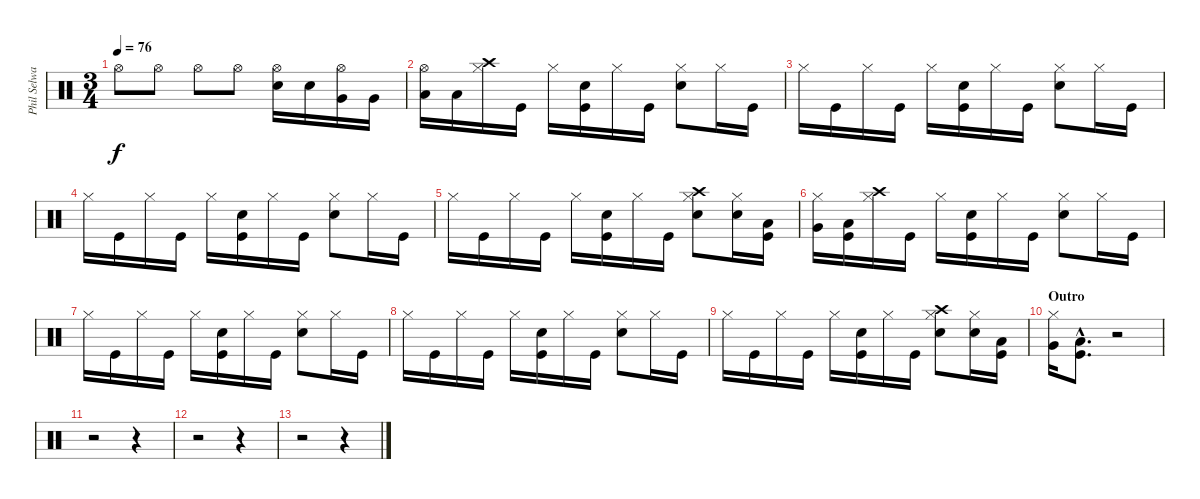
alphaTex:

\track ("Phil Selway" "Phil Selwa") {instrument percussion}
\staff {score}
\articulation defaults
\ts (3 4)
\tempo 76
\clef neutral
\ks c "Hi-Hat (open)".8{dy f} "Hi-Hat (open)".8 "Hi-Hat (open)".8 "Hi-Hat (open)".8
("Snare (hit) 2" "Hi-Hat (open)").16 "Snare (hit) 2".16 ("Very Low Tom (hit)" "Hi-Hat (open)").16 "Very Low Tom (hit)".16 |
("Low Floor Tom (hit)" "Hi-Hat (open)").16 "Low Floor Tom (hit)".16 ("Hi-Hat (closed)" "Crash high (hit)").16 "Kick (hit)".16 "Hi-Hat (closed)".16 ("Kick (hit)" "Snare (hit) 2").16 "Hi-Hat (closed)".16 "Kick (hit)".16 ("Snare (hit) 2" "Hi-Hat (closed)").8 "Hi-Hat (closed)".16 "Kick (hit)".16 |
"Hi-Hat (closed)".16 "Kick (hit)".16 "Hi-Hat (closed)".16 "Kick (hit)".16 "Hi-Hat (closed)".16 ("Kick (hit)" "Snare (hit) 2").16 "Hi-Hat (closed)".16 "Kick (hit)".16 ("Snare (hit) 2" "Hi-Hat (closed)").8 "Hi-Hat (closed)".16 "Kick (hit)".16 |
"Hi-Hat (closed)".16 "Kick (hit)".16 "Hi-Hat (closed)".16 "Kick (hit)".16 "Hi-Hat (closed)".16 ("Kick (hit)" "Snare (hit) 2").16 "Hi-Hat (closed)".16 "Kick (hit)".16 ("Snare (hit) 2" "Hi-Hat (closed)").8 "Hi-Hat (closed)".16 "Kick (hit)".16 |
"Hi-Hat (closed)".16 "Kick (hit)".16 "Hi-Hat (closed)".16 "Kick (hit)".16 "Hi-Hat (closed)".16 ("Kick (hit)" "Snare (hit) 2").16 "Hi-Hat (closed)".16 "Kick (hit)".16 ("Snare (hit) 2" "Hi-Hat (closed)" "Crash high (hit)").8 ("Snare (hit) 2" "Hi-Hat (closed)").16 ("Kick (hit)" "Low Tom (hit)").16 |
("Hi-Hat (closed)" "Very Low Tom (hit)").16 ("Kick (hit)" "Low Floor Tom (hit)").16 ("Hi-Hat (closed)" "Crash high (hit)").16 "Kick (hit)".16 "Hi-Hat (closed)".16 ("Kick (hit)" "Snare (hit) 2").16 "Hi-Hat (closed)".16 "Kick (hit)".16 ("Snare (hit) 2" "Hi-Hat (closed)").8 "Hi-Hat (closed)".16 "Kick (hit)".16 |
"Hi-Hat (closed)".16 "Kick (hit)".16 "Hi-Hat (closed)".16 "Kick (hit)".16 "Hi-Hat (closed)".16 ("Kick (hit)" "Snare (hit) 2").16 "Hi-Hat (closed)".16 "Kick (hit)".16 ("Snare (hit) 2" "Hi-Hat (closed)").8 "Hi-Hat (closed)".16 "Kick (hit)".16 |
"Hi-Hat (closed)".16 "Kick (hit)".16 "Hi-Hat (closed)".16 "Kick (hit)".16 "Hi-Hat (closed)".16 ("Kick (hit)" "Snare (hit) 2").16 "Hi-Hat (closed)".16 "Kick (hit)".16 ("Snare (hit) 2" "Hi-Hat (closed)").8 "Hi-Hat (closed)".16 "Kick (hit)".16 |
"Hi-Hat (closed)".16 "Kick (hit)".16 "Hi-Hat (closed)".16 "Kick (hit)".16 "Hi-Hat (closed)".16 ("Kick (hit)" "Snare (hit) 2").16 "Hi-Hat (closed)".16 "Kick (hit)".16 ("Snare (hit) 2" "Hi-Hat (closed)" "Crash high (hit)").8 ("Snare (hit) 2" "Hi-Hat (closed)").16 ("Kick (hit)" "Low Tom (hit)").16 |
\section ("" "Outro")
("Hi-Hat (closed)" "Very Low Tom (hit)").16 ("Kick (hit)"{hac} "Low Floor Tom (hit)"{hac}).8{d} r.2 |
r.2 r.4 |
r.2 r.4 |
r.2 r.4
